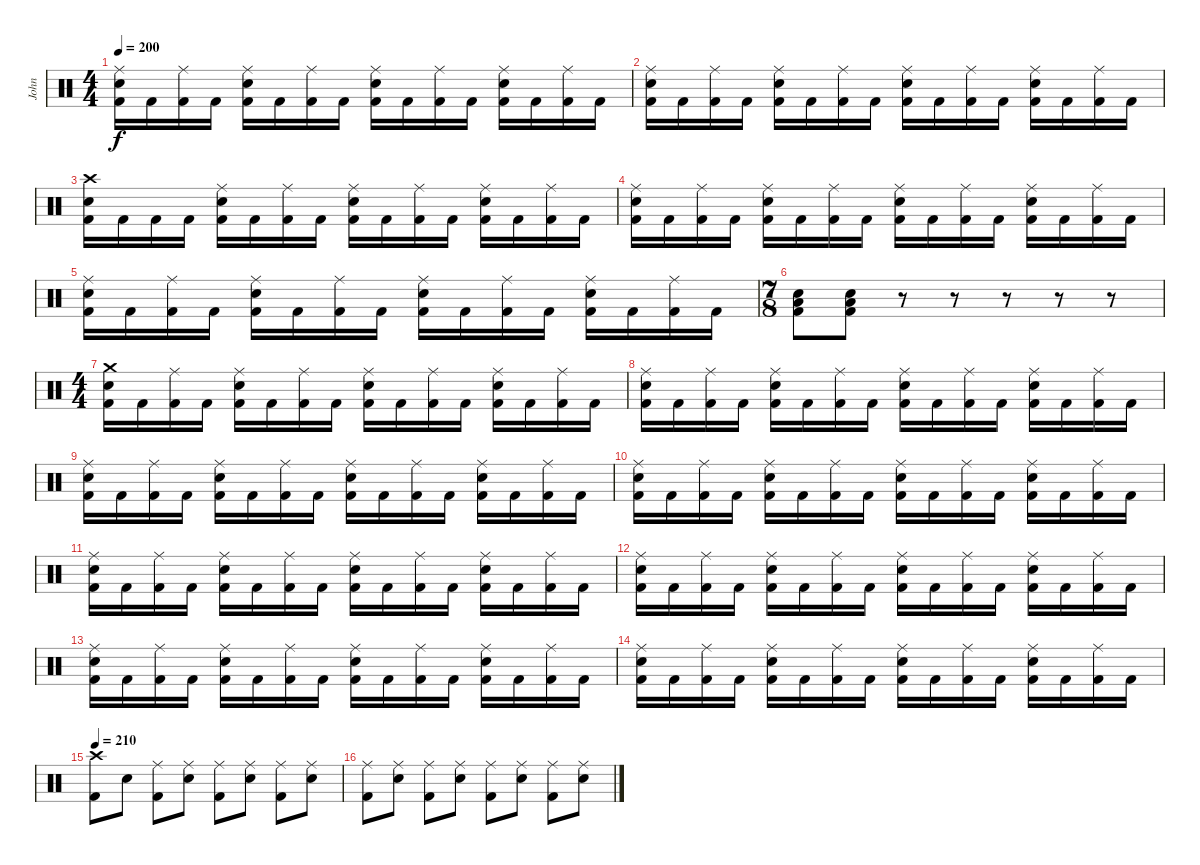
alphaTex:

\track ("John" "John") {instrument percussion}
\staff {score}
\articulation defaults
\ts (4 4)
\tempo 200
\clef neutral
\ks c
("Ride (middle)" "Electric Snare (hit)" "Kick (hit) 2").16{dy f} "Kick (hit) 2".16 ("Ride (middle)" "Kick (hit) 2").16 "Kick (hit) 2".16 ("Ride (middle)" "Electric Snare (hit)" "Kick (hit) 2").16 "Kick (hit) 2".16 ("Ride (middle)" "Kick (hit) 2").16 "Kick (hit) 2".16 ("Ride (middle)" "Electric Snare (hit)" "Kick (hit) 2").16 "Kick (hit) 2".16 ("Ride (middle)" "Kick (hit) 2").16 "Kick (hit) 2".16 ("Ride (middle)" "Electric Snare (hit)" "Kick (hit) 2").16 "Kick (hit) 2".16 ("Ride (middle)" "Kick (hit) 2").16 "Kick (hit) 2".16 |
("Ride (middle)" "Electric Snare (hit)" "Kick (hit) 2").16 "Kick (hit) 2".16 ("Ride (middle)" "Kick (hit) 2").16 "Kick (hit) 2".16 ("Ride (middle)" "Electric Snare (hit)" "Kick (hit) 2").16 "Kick (hit) 2".16 ("Ride (middle)" "Kick (hit) 2").16 "Kick (hit) 2".16 ("Ride (middle)" "Electric Snare (hit)" "Kick (hit) 2").16 "Kick (hit) 2".16 ("Ride (middle)" "Kick (hit) 2").16 "Kick (hit) 2".16 ("Ride (middle)" "Electric Snare (hit)" "Kick (hit) 2").16 "Kick (hit) 2".16 ("Ride (middle)" "Kick (hit) 2").16 "Kick (hit) 2".16 |
("Crash high (hit)" "Electric Snare (hit)" "Kick (hit) 2").16 "Kick (hit) 2".16 "Kick (hit) 2".16 "Kick (hit) 2".16 ("Ride (middle)" "Electric Snare (hit)" "Kick (hit) 2").16 "Kick (hit) 2".16 ("Ride (middle)" "Kick (hit) 2").16 "Kick (hit) 2".16 ("Ride (middle)" "Electric Snare (hit)" "Kick (hit) 2").16 "Kick (hit) 2".16 ("Ride (middle)" "Kick (hit) 2").16 "Kick (hit) 2".16 ("Ride (middle)" "Electric Snare (hit)" "Kick (hit) 2").16 "Kick (hit) 2".16 ("Ride (middle)" "Kick (hit) 2").16 "Kick (hit) 2".16 |
("Ride (middle)" "Electric Snare (hit)" "Kick (hit) 2").16 "Kick (hit) 2".16 ("Ride (middle)" "Kick (hit) 2").16 "Kick (hit) 2".16 ("Ride (middle)" "Electric Snare (hit)" "Kick (hit) 2").16 "Kick (hit) 2".16 ("Ride (middle)" "Kick (hit) 2").16 "Kick (hit) 2".16 ("Ride (middle)" "Electric Snare (hit)" "Kick (hit) 2").16 "Kick (hit) 2".16 ("Ride (middle)" "Kick (hit) 2").16 "Kick (hit) 2".16 ("Ride (middle)" "Electric Snare (hit)" "Kick (hit) 2").16 "Kick (hit) 2".16 ("Ride (middle)" "Kick (hit) 2").16 "Kick (hit) 2".16 |
("Ride (middle)" "Electric Snare (hit)" "Kick (hit) 2").16 "Kick (hit) 2".16 ("Ride (middle)" "Kick (hit) 2").16 "Kick (hit) 2".16 ("Ride (middle)" "Electric Snare (hit)" "Kick (hit) 2").16 "Kick (hit) 2".16 ("Ride (middle)" "Kick (hit) 2").16 "Kick (hit) 2".16 ("Ride (middle)" "Electric Snare (hit)" "Kick (hit) 2").16 "Kick (hit) 2".16 ("Ride (middle)" "Kick (hit) 2").16 "Kick (hit) 2".16 ("Ride (middle)" "Electric Snare (hit)" "Kick (hit) 2").16 "Kick (hit) 2".16 ("Ride (middle)" "Kick (hit) 2").16 "Kick (hit) 2".16 |
\ts (7 8)
("Low Floor Tom (hit)" "Electric Snare (hit)" "Kick (hit) 2").8 ("Low Floor Tom (hit)" "Electric Snare (hit)" "Kick (hit) 2").8 r.8 r.8 r.8 r.8 r.8 |
\ts (4 4)
("Crash medium (hit)" "Electric Snare (hit)" "Kick (hit) 2").16 "Kick (hit) 2".16 ("Ride (middle)" "Kick (hit) 2").16 "Kick (hit) 2".16 ("Ride (middle)" "Electric Snare (hit)" "Kick (hit) 2").16 "Kick (hit) 2".16 ("Ride (middle)" "Kick (hit) 2").16 "Kick (hit) 2".16 ("Ride (middle)" "Electric Snare (hit)" "Kick (hit) 2").16 "Kick (hit) 2".16 ("Ride (middle)" "Kick (hit) 2").16 "Kick (hit) 2".16 ("Ride (middle)" "Electric Snare (hit)" "Kick (hit) 2").16 "Kick (hit) 2".16 ("Ride (middle)" "Kick (hit) 2").16 "Kick (hit) 2".16 |
("Ride (middle)" "Electric Snare (hit)" "Kick (hit) 2").16 "Kick (hit) 2".16 ("Ride (middle)" "Kick (hit) 2").16 "Kick (hit) 2".16 ("Ride (middle)" "Electric Snare (hit)" "Kick (hit) 2").16 "Kick (hit) 2".16 ("Ride (middle)" "Kick (hit) 2").16 "Kick (hit) 2".16 ("Ride (middle)" "Electric Snare (hit)" "Kick (hit) 2").16 "Kick (hit) 2".16 ("Ride (middle)" "Kick (hit) 2").16 "Kick (hit) 2".16 ("Ride (middle)" "Electric Snare (hit)" "Kick (hit) 2").16 "Kick (hit) 2".16 ("Ride (middle)" "Kick (hit) 2").16 "Kick (hit) 2".16 |
("Ride (middle)" "Electric Snare (hit)" "Kick (hit) 2").16 "Kick (hit) 2".16 ("Ride (middle)" "Kick (hit) 2").16 "Kick (hit) 2".16 ("Ride (middle)" "Electric Snare (hit)" "Kick (hit) 2").16 "Kick (hit) 2".16 ("Ride (middle)" "Kick (hit) 2").16 "Kick (hit) 2".16 ("Ride (middle)" "Electric Snare (hit)" "Kick (hit) 2").16 "Kick (hit) 2".16 ("Ride (middle)" "Kick (hit) 2").16 "Kick (hit) 2".16 ("Ride (middle)" "Electric Snare (hit)" "Kick (hit) 2").16 "Kick (hit) 2".16 ("Ride (middle)" "Kick (hit) 2").16 "Kick (hit) 2".16 |
("Ride (middle)" "Electric Snare (hit)" "Kick (hit) 2").16 "Kick (hit) 2".16 ("Ride (middle)" "Kick (hit) 2").16 "Kick (hit) 2".16 ("Ride (middle)" "Electric Snare (hit)" "Kick (hit) 2").16 "Kick (hit) 2".16 ("Ride (middle)" "Kick (hit) 2").16 "Kick (hit) 2".16 ("Ride (middle)" "Electric Snare (hit)" "Kick (hit) 2").16 "Kick (hit) 2".16 ("Ride (middle)" "Kick (hit) 2").16 "Kick (hit) 2".16 ("Ride (middle)" "Electric Snare (hit)" "Kick (hit) 2").16 "Kick (hit) 2".16 ("Ride (middle)" "Kick (hit) 2").16 "Kick (hit) 2".16 |
("Ride (middle)" "Electric Snare (hit)" "Kick (hit) 2").16 "Kick (hit) 2".16 ("Ride (middle)" "Kick (hit) 2").16 "Kick (hit) 2".16 ("Ride (middle)" "Electric Snare (hit)" "Kick (hit) 2").16 "Kick (hit) 2".16 ("Ride (middle)" "Kick (hit) 2").16 "Kick (hit) 2".16 ("Ride (middle)" "Electric Snare (hit)" "Kick (hit) 2").16 "Kick (hit) 2".16 ("Ride (middle)" "Kick (hit) 2").16 "Kick (hit) 2".16 ("Ride (middle)" "Electric Snare (hit)" "Kick (hit) 2").16 "Kick (hit) 2".16 ("Ride (middle)" "Kick (hit) 2").16 "Kick (hit) 2".16 |
("Ride (middle)" "Electric Snare (hit)" "Kick (hit) 2").16 "Kick (hit) 2".16 ("Ride (middle)" "Kick (hit) 2").16 "Kick (hit) 2".16 ("Ride (middle)" "Electric Snare (hit)" "Kick (hit) 2").16 "Kick (hit) 2".16 ("Ride (middle)" "Kick (hit) 2").16 "Kick (hit) 2".16 ("Ride (middle)" "Electric Snare (hit)" "Kick (hit) 2").16 "Kick (hit) 2".16 ("Ride (middle)" "Kick (hit) 2").16 "Kick (hit) 2".16 ("Ride (middle)" "Electric Snare (hit)" "Kick (hit) 2").16 "Kick (hit) 2".16 ("Ride (middle)" "Kick (hit) 2").16 "Kick (hit) 2".16 |
("Ride (middle)" "Electric Snare (hit)" "Kick (hit) 2").16 "Kick (hit) 2".16 ("Ride (middle)" "Kick (hit) 2").16 "Kick (hit) 2".16 ("Ride (middle)" "Electric Snare (hit)" "Kick (hit) 2").16 "Kick (hit) 2".16 ("Ride (middle)" "Kick (hit) 2").16 "Kick (hit) 2".16 ("Ride (middle)" "Electric Snare (hit)" "Kick (hit) 2").16 "Kick (hit) 2".16 ("Ride (middle)" "Kick (hit) 2").16 "Kick (hit) 2".16 ("Ride (middle)" "Electric Snare (hit)" "Kick (hit) 2").16 "Kick (hit) 2".16 ("Ride (middle)" "Kick (hit) 2").16 "Kick (hit) 2".16 |
("Ride (middle)" "Electric Snare (hit)" "Kick (hit) 2").16 "Kick (hit) 2".16 ("Ride (middle)" "Kick (hit) 2").16 "Kick (hit) 2".16 ("Ride (middle)" "Electric Snare (hit)" "Kick (hit) 2").16 "Kick (hit) 2".16 ("Ride (middle)" "Kick (hit) 2").16 "Kick (hit) 2".16 ("Ride (middle)" "Electric Snare (hit)" "Kick (hit) 2").16 "Kick (hit) 2".16 ("Ride (middle)" "Kick (hit) 2").16 "Kick (hit) 2".16 ("Ride (middle)" "Electric Snare (hit)" "Kick (hit) 2").16 "Kick (hit) 2".16 ("Ride (middle)" "Kick (hit) 2").16 "Kick (hit) 2".16 |
\tempo 210
("Crash high (hit)" "Kick (hit) 2").8 "Electric Snare (hit)".8 ("Ride (middle)" "Kick (hit) 2").8 ("Ride (middle)" "Electric Snare (hit)").8 ("Ride (middle)" "Kick (hit) 2").8 ("Ride (middle)" "Electric Snare (hit)").8 ("Ride (middle)" "Kick (hit) 2").8 ("Ride (middle)" "Electric Snare (hit)").8 |
("Ride (middle)" "Kick (hit) 2").8 ("Ride (middle)" "Electric Snare (hit)").8 ("Ride (middle)" "Kick (hit) 2").8 ("Ride (middle)" "Electric Snare (hit)").8 ("Ride (middle)" "Kick (hit) 2").8 ("Ride (middle)" "Electric Snare (hit)").8 ("Ride (middle)" "Kick (hit) 2").8 ("Ride (middle)" "Electric Snare (hit)").8
